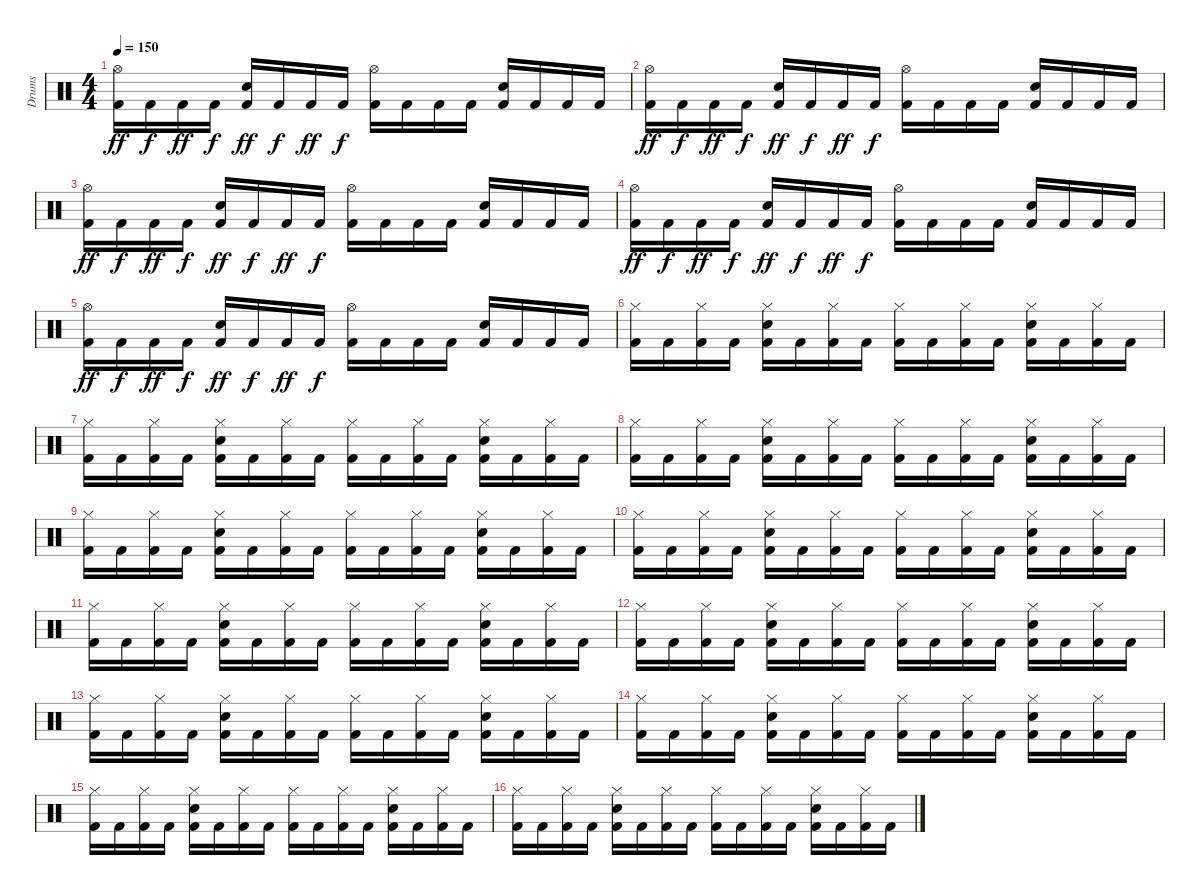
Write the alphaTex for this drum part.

\track ("Drums" "Drums") {instrument percussion}
\staff {score}
\articulation defaults
\ts (4 4)
\tempo 150
\clef neutral
\ks c
("Kick (hit) 2" "Hi-Hat (open)").16{dy ff} "Kick (hit) 2".16{dy f} "Kick (hit) 2".16{dy ff} "Kick (hit) 2".16{dy f} ("Kick (hit) 2" "Snare (hit) 2").16{dy ff} "Kick (hit) 2".16{dy f} "Kick (hit) 2".16{dy ff} "Kick (hit) 2".16{dy f} ("Kick (hit) 2" "Hi-Hat (open)").16 "Kick (hit) 2".16 "Kick (hit) 2".16 "Kick (hit) 2".16 ("Kick (hit) 2" "Snare (hit) 2").16 "Kick (hit) 2".16 "Kick (hit) 2".16 "Kick (hit) 2".16 |
("Kick (hit) 2" "Hi-Hat (open)").16{dy ff} "Kick (hit) 2".16{dy f} "Kick (hit) 2".16{dy ff} "Kick (hit) 2".16{dy f} ("Kick (hit) 2" "Snare (hit) 2").16{dy ff} "Kick (hit) 2".16{dy f} "Kick (hit) 2".16{dy ff} "Kick (hit) 2".16{dy f} ("Kick (hit) 2" "Hi-Hat (open)").16 "Kick (hit) 2".16 "Kick (hit) 2".16 "Kick (hit) 2".16 ("Kick (hit) 2" "Snare (hit) 2").16 "Kick (hit) 2".16 "Kick (hit) 2".16 "Kick (hit) 2".16 |
("Kick (hit) 2" "Hi-Hat (open)").16{dy ff} "Kick (hit) 2".16{dy f} "Kick (hit) 2".16{dy ff} "Kick (hit) 2".16{dy f} ("Kick (hit) 2" "Snare (hit) 2").16{dy ff} "Kick (hit) 2".16{dy f} "Kick (hit) 2".16{dy ff} "Kick (hit) 2".16{dy f} ("Kick (hit) 2" "Hi-Hat (open)").16 "Kick (hit) 2".16 "Kick (hit) 2".16 "Kick (hit) 2".16 ("Kick (hit) 2" "Snare (hit) 2").16 "Kick (hit) 2".16 "Kick (hit) 2".16 "Kick (hit) 2".16 |
("Kick (hit) 2" "Hi-Hat (open)").16{dy ff} "Kick (hit) 2".16{dy f} "Kick (hit) 2".16{dy ff} "Kick (hit) 2".16{dy f} ("Kick (hit) 2" "Snare (hit) 2").16{dy ff} "Kick (hit) 2".16{dy f} "Kick (hit) 2".16{dy ff} "Kick (hit) 2".16{dy f} ("Kick (hit) 2" "Hi-Hat (open)").16 "Kick (hit) 2".16 "Kick (hit) 2".16 "Kick (hit) 2".16 ("Kick (hit) 2" "Snare (hit) 2").16 "Kick (hit) 2".16 "Kick (hit) 2".16 "Kick (hit) 2".16 |
("Kick (hit) 2" "Hi-Hat (open)").16{dy ff} "Kick (hit) 2".16{dy f} "Kick (hit) 2".16{dy ff} "Kick (hit) 2".16{dy f} ("Kick (hit) 2" "Snare (hit) 2").16{dy ff} "Kick (hit) 2".16{dy f} "Kick (hit) 2".16{dy ff} "Kick (hit) 2".16{dy f} ("Kick (hit) 2" "Hi-Hat (open)").16 "Kick (hit) 2".16 "Kick (hit) 2".16 "Kick (hit) 2".16 ("Kick (hit) 2" "Snare (hit) 2").16 "Kick (hit) 2".16 "Kick (hit) 2".16 "Kick (hit) 2".16 |
("Kick (hit) 2" "Hi-Hat (closed)").16 "Kick (hit) 2".16 ("Kick (hit) 2" "Hi-Hat (closed)").16 "Kick (hit) 2".16 ("Kick (hit) 2" "Hi-Hat (closed)" "Snare (hit) 2").16 "Kick (hit) 2".16 ("Kick (hit) 2" "Hi-Hat (closed)").16 "Kick (hit) 2".16 ("Kick (hit) 2" "Hi-Hat (closed)").16 "Kick (hit) 2".16 ("Kick (hit) 2" "Hi-Hat (closed)").16 "Kick (hit) 2".16 ("Kick (hit) 2" "Hi-Hat (closed)" "Snare (hit) 2").16 "Kick (hit) 2".16 ("Kick (hit) 2" "Hi-Hat (closed)").16 "Kick (hit) 2".16 |
("Kick (hit) 2" "Hi-Hat (closed)").16 "Kick (hit) 2".16 ("Kick (hit) 2" "Hi-Hat (closed)").16 "Kick (hit) 2".16 ("Kick (hit) 2" "Hi-Hat (closed)" "Snare (hit) 2").16 "Kick (hit) 2".16 ("Kick (hit) 2" "Hi-Hat (closed)").16 "Kick (hit) 2".16 ("Kick (hit) 2" "Hi-Hat (closed)").16 "Kick (hit) 2".16 ("Kick (hit) 2" "Hi-Hat (closed)").16 "Kick (hit) 2".16 ("Kick (hit) 2" "Hi-Hat (closed)" "Snare (hit) 2").16 "Kick (hit) 2".16 ("Kick (hit) 2" "Hi-Hat (closed)").16 "Kick (hit) 2".16 |
("Kick (hit) 2" "Hi-Hat (closed)").16 "Kick (hit) 2".16 ("Kick (hit) 2" "Hi-Hat (closed)").16 "Kick (hit) 2".16 ("Kick (hit) 2" "Hi-Hat (closed)" "Snare (hit) 2").16 "Kick (hit) 2".16 ("Kick (hit) 2" "Hi-Hat (closed)").16 "Kick (hit) 2".16 ("Kick (hit) 2" "Hi-Hat (closed)").16 "Kick (hit) 2".16 ("Kick (hit) 2" "Hi-Hat (closed)").16 "Kick (hit) 2".16 ("Kick (hit) 2" "Hi-Hat (closed)" "Snare (hit) 2").16 "Kick (hit) 2".16 ("Kick (hit) 2" "Hi-Hat (closed)").16 "Kick (hit) 2".16 |
("Kick (hit) 2" "Hi-Hat (closed)").16 "Kick (hit) 2".16 ("Kick (hit) 2" "Hi-Hat (closed)").16 "Kick (hit) 2".16 ("Kick (hit) 2" "Hi-Hat (closed)" "Snare (hit) 2").16 "Kick (hit) 2".16 ("Kick (hit) 2" "Hi-Hat (closed)").16 "Kick (hit) 2".16 ("Kick (hit) 2" "Hi-Hat (closed)").16 "Kick (hit) 2".16 ("Kick (hit) 2" "Hi-Hat (closed)").16 "Kick (hit) 2".16 ("Kick (hit) 2" "Hi-Hat (closed)" "Snare (hit) 2").16 "Kick (hit) 2".16 ("Kick (hit) 2" "Hi-Hat (closed)").16 "Kick (hit) 2".16 |
("Kick (hit) 2" "Hi-Hat (closed)").16 "Kick (hit) 2".16 ("Kick (hit) 2" "Hi-Hat (closed)").16 "Kick (hit) 2".16 ("Kick (hit) 2" "Hi-Hat (closed)" "Snare (hit) 2").16 "Kick (hit) 2".16 ("Kick (hit) 2" "Hi-Hat (closed)").16 "Kick (hit) 2".16 ("Kick (hit) 2" "Hi-Hat (closed)").16 "Kick (hit) 2".16 ("Kick (hit) 2" "Hi-Hat (closed)").16 "Kick (hit) 2".16 ("Kick (hit) 2" "Hi-Hat (closed)" "Snare (hit) 2").16 "Kick (hit) 2".16 ("Kick (hit) 2" "Hi-Hat (closed)").16 "Kick (hit) 2".16 |
("Kick (hit) 2" "Hi-Hat (closed)").16 "Kick (hit) 2".16 ("Kick (hit) 2" "Hi-Hat (closed)").16 "Kick (hit) 2".16 ("Kick (hit) 2" "Hi-Hat (closed)" "Snare (hit) 2").16 "Kick (hit) 2".16 ("Kick (hit) 2" "Hi-Hat (closed)").16 "Kick (hit) 2".16 ("Kick (hit) 2" "Hi-Hat (closed)").16 "Kick (hit) 2".16 ("Kick (hit) 2" "Hi-Hat (closed)").16 "Kick (hit) 2".16 ("Kick (hit) 2" "Hi-Hat (closed)" "Snare (hit) 2").16 "Kick (hit) 2".16 ("Kick (hit) 2" "Hi-Hat (closed)").16 "Kick (hit) 2".16 |
("Kick (hit) 2" "Hi-Hat (closed)").16 "Kick (hit) 2".16 ("Kick (hit) 2" "Hi-Hat (closed)").16 "Kick (hit) 2".16 ("Kick (hit) 2" "Hi-Hat (closed)" "Snare (hit) 2").16 "Kick (hit) 2".16 ("Kick (hit) 2" "Hi-Hat (closed)").16 "Kick (hit) 2".16 ("Kick (hit) 2" "Hi-Hat (closed)").16 "Kick (hit) 2".16 ("Kick (hit) 2" "Hi-Hat (closed)").16 "Kick (hit) 2".16 ("Kick (hit) 2" "Hi-Hat (closed)" "Snare (hit) 2").16 "Kick (hit) 2".16 ("Kick (hit) 2" "Hi-Hat (closed)").16 "Kick (hit) 2".16 |
("Kick (hit) 2" "Hi-Hat (closed)").16 "Kick (hit) 2".16 ("Kick (hit) 2" "Hi-Hat (closed)").16 "Kick (hit) 2".16 ("Kick (hit) 2" "Hi-Hat (closed)" "Snare (hit) 2").16 "Kick (hit) 2".16 ("Kick (hit) 2" "Hi-Hat (closed)").16 "Kick (hit) 2".16 ("Kick (hit) 2" "Hi-Hat (closed)").16 "Kick (hit) 2".16 ("Kick (hit) 2" "Hi-Hat (closed)").16 "Kick (hit) 2".16 ("Kick (hit) 2" "Hi-Hat (closed)" "Snare (hit) 2").16 "Kick (hit) 2".16 ("Kick (hit) 2" "Hi-Hat (closed)").16 "Kick (hit) 2".16 |
("Kick (hit) 2" "Hi-Hat (closed)").16 "Kick (hit) 2".16 ("Kick (hit) 2" "Hi-Hat (closed)").16 "Kick (hit) 2".16 ("Kick (hit) 2" "Hi-Hat (closed)" "Snare (hit) 2").16 "Kick (hit) 2".16 ("Kick (hit) 2" "Hi-Hat (closed)").16 "Kick (hit) 2".16 ("Kick (hit) 2" "Hi-Hat (closed)").16 "Kick (hit) 2".16 ("Kick (hit) 2" "Hi-Hat (closed)").16 "Kick (hit) 2".16 ("Kick (hit) 2" "Hi-Hat (closed)" "Snare (hit) 2").16 "Kick (hit) 2".16 ("Kick (hit) 2" "Hi-Hat (closed)").16 "Kick (hit) 2".16 |
("Kick (hit) 2" "Hi-Hat (closed)").16 "Kick (hit) 2".16 ("Kick (hit) 2" "Hi-Hat (closed)").16 "Kick (hit) 2".16 ("Kick (hit) 2" "Hi-Hat (closed)" "Snare (hit) 2").16 "Kick (hit) 2".16 ("Kick (hit) 2" "Hi-Hat (closed)").16 "Kick (hit) 2".16 ("Kick (hit) 2" "Hi-Hat (closed)").16 "Kick (hit) 2".16 ("Kick (hit) 2" "Hi-Hat (closed)").16 "Kick (hit) 2".16 ("Kick (hit) 2" "Hi-Hat (closed)" "Snare (hit) 2").16 "Kick (hit) 2".16 ("Kick (hit) 2" "Hi-Hat (closed)").16 "Kick (hit) 2".16 |
("Kick (hit) 2" "Hi-Hat (closed)").16 "Kick (hit) 2".16 ("Kick (hit) 2" "Hi-Hat (closed)").16 "Kick (hit) 2".16 ("Kick (hit) 2" "Hi-Hat (closed)" "Snare (hit) 2").16 "Kick (hit) 2".16 ("Kick (hit) 2" "Hi-Hat (closed)").16 "Kick (hit) 2".16 ("Kick (hit) 2" "Hi-Hat (closed)").16 "Kick (hit) 2".16 ("Kick (hit) 2" "Hi-Hat (closed)").16 "Kick (hit) 2".16 ("Kick (hit) 2" "Hi-Hat (closed)" "Snare (hit) 2").16 "Kick (hit) 2".16 ("Kick (hit) 2" "Hi-Hat (closed)").16 "Kick (hit) 2".16
